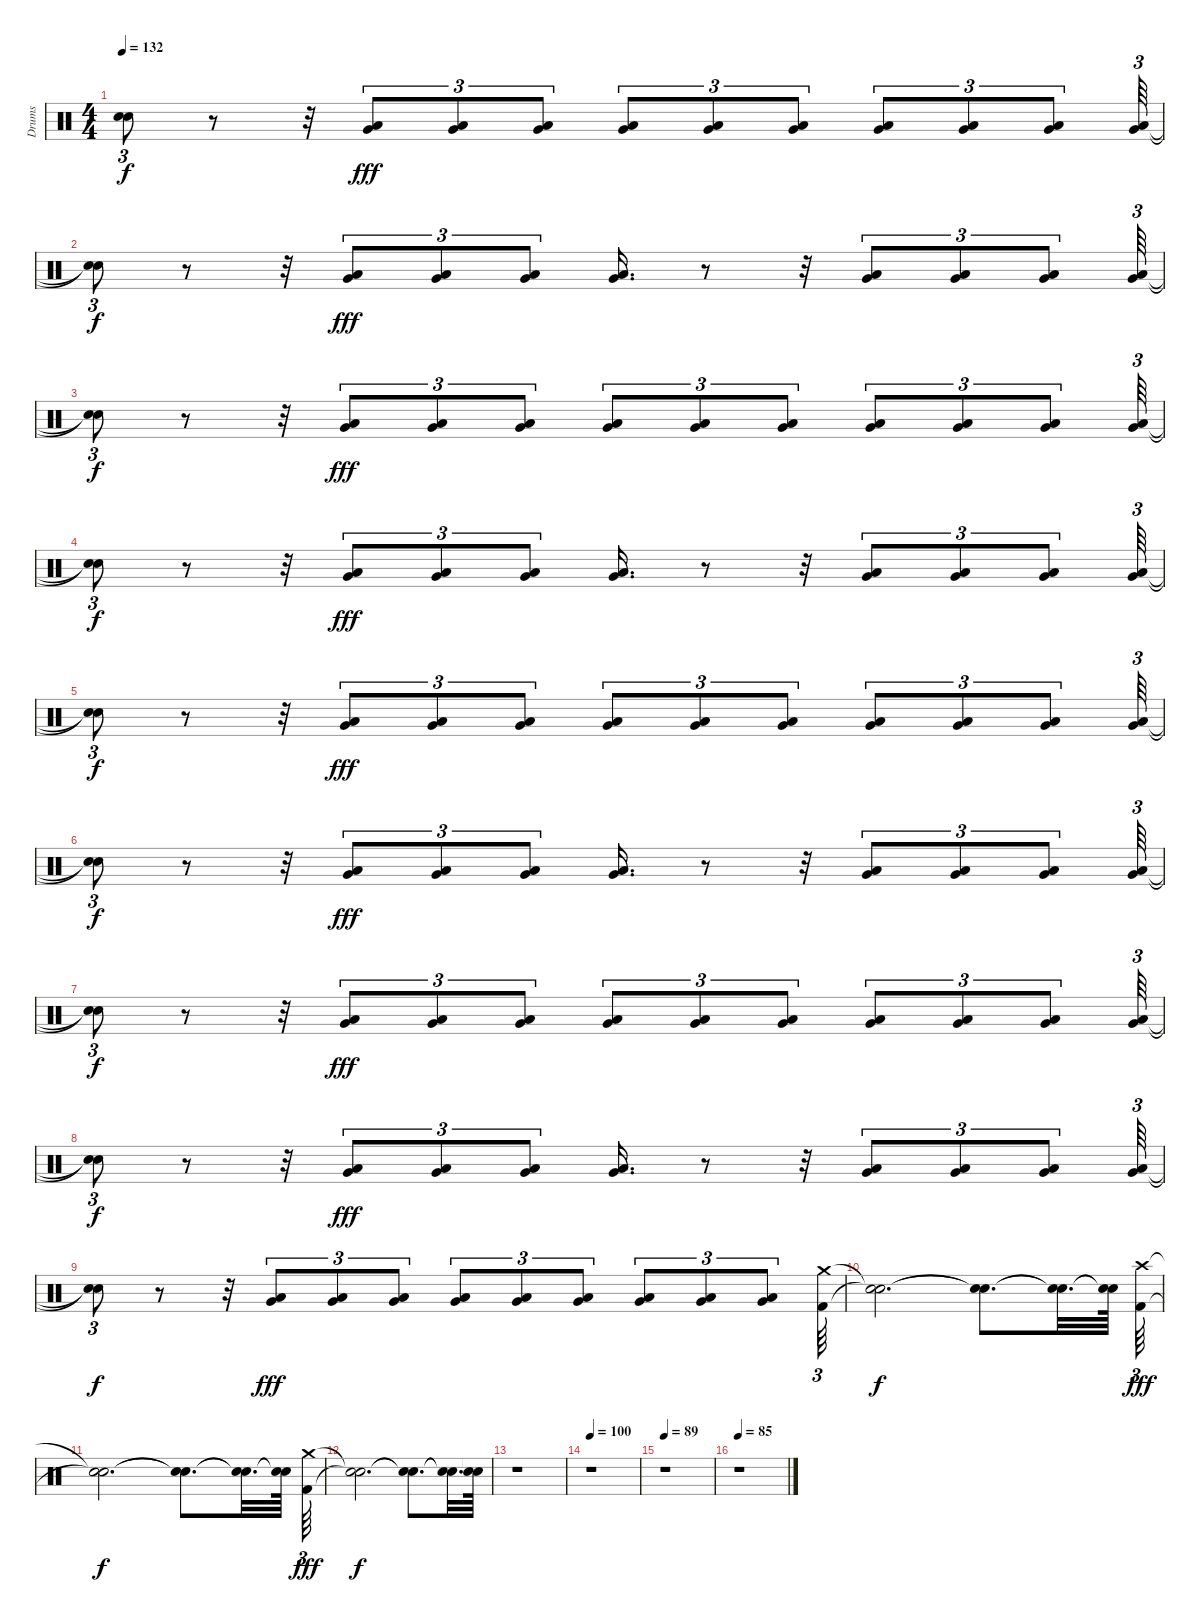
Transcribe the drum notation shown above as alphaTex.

\track ("Drums" "Drums") {instrument percussion}
\staff {score}
\articulation defaults
\ts (4 4)
\tempo 132
\clef neutral
\ks c
("Snare (hit)"{t} "Snare (hit)"{t}).8{tu (3 2) dy f} r.8 r.32 ("Low Tom (hit)" "Very Low Tom (hit)").8{tu (3 2) dy fff} ("Low Tom (hit)" "Very Low Tom (hit)").8{tu (3 2)} ("Very Low Tom (hit)" "Low Tom (hit)").8{tu (3 2)} ("Very Low Tom (hit)" "Low Tom (hit)").8{tu (3 2)} ("Low Tom (hit)" "Very Low Tom (hit)").8{tu (3 2)} ("Very Low Tom (hit)" "Low Tom (hit)").8{tu (3 2)} ("Very Low Tom (hit)" "Low Tom (hit)").8{tu (3 2)} ("Very Low Tom (hit)" "Low Tom (hit)").8{tu (3 2)} ("Low Tom (hit)" "Very Low Tom (hit)").8{tu (3 2)} ("Very Low Tom (hit)" "Low Tom (hit)").64{tu (3 2)} |
("Snare (hit)"{t} "Snare (hit)"{t}).8{tu (3 2) dy f} r.8 r.32 ("Very Low Tom (hit)" "Low Tom (hit)").8{tu (3 2) dy fff} ("Very Low Tom (hit)" "Low Tom (hit)").8{tu (3 2)} ("Very Low Tom (hit)" "Low Tom (hit)").8{tu (3 2)} ("Very Low Tom (hit)" "Low Tom (hit)").16{d} r.8 r.32 ("Low Tom (hit)" "Very Low Tom (hit)").8{tu (3 2)} ("Very Low Tom (hit)" "Low Tom (hit)").8{tu (3 2)} ("Low Tom (hit)" "Very Low Tom (hit)").8{tu (3 2)} ("Very Low Tom (hit)" "Low Tom (hit)").64{tu (3 2)} |
("Snare (hit)"{t} "Snare (hit)"{t}).8{tu (3 2) dy f} r.8 r.32 ("Very Low Tom (hit)" "Low Tom (hit)").8{tu (3 2) dy fff} ("Very Low Tom (hit)" "Low Tom (hit)").8{tu (3 2)} ("Very Low Tom (hit)" "Low Tom (hit)").8{tu (3 2)} ("Low Tom (hit)" "Very Low Tom (hit)").8{tu (3 2)} ("Very Low Tom (hit)" "Low Tom (hit)").8{tu (3 2)} ("Very Low Tom (hit)" "Low Tom (hit)").8{tu (3 2)} ("Low Tom (hit)" "Very Low Tom (hit)").8{tu (3 2)} ("Low Tom (hit)" "Very Low Tom (hit)").8{tu (3 2)} ("Very Low Tom (hit)" "Low Tom (hit)").8{tu (3 2)} ("Low Tom (hit)" "Very Low Tom (hit)").64{tu (3 2)} |
("Snare (hit)"{t} "Snare (hit)"{t}).8{tu (3 2) dy f} r.8 r.32 ("Very Low Tom (hit)" "Low Tom (hit)").8{tu (3 2) dy fff} ("Low Tom (hit)" "Very Low Tom (hit)").8{tu (3 2)} ("Low Tom (hit)" "Very Low Tom (hit)").8{tu (3 2)} ("Low Tom (hit)" "Very Low Tom (hit)").16{d} r.8 r.32 ("Very Low Tom (hit)" "Low Tom (hit)").8{tu (3 2)} ("Low Tom (hit)" "Very Low Tom (hit)").8{tu (3 2)} ("Low Tom (hit)" "Very Low Tom (hit)").8{tu (3 2)} ("Very Low Tom (hit)" "Low Tom (hit)").64{tu (3 2)} |
("Snare (hit)"{t} "Snare (hit)"{t}).8{tu (3 2) dy f} r.8 r.32 ("Low Tom (hit)" "Very Low Tom (hit)").8{tu (3 2) dy fff} ("Low Tom (hit)" "Very Low Tom (hit)").8{tu (3 2)} ("Very Low Tom (hit)" "Low Tom (hit)").8{tu (3 2)} ("Low Tom (hit)" "Very Low Tom (hit)").8{tu (3 2)} ("Very Low Tom (hit)" "Low Tom (hit)").8{tu (3 2)} ("Very Low Tom (hit)" "Low Tom (hit)").8{tu (3 2)} ("Low Tom (hit)" "Very Low Tom (hit)").8{tu (3 2)} ("Very Low Tom (hit)" "Low Tom (hit)").8{tu (3 2)} ("Very Low Tom (hit)" "Low Tom (hit)").8{tu (3 2)} ("Low Tom (hit)" "Very Low Tom (hit)").64{tu (3 2)} |
("Snare (hit)"{t} "Snare (hit)"{t}).8{tu (3 2) dy f} r.8 r.32 ("Low Tom (hit)" "Very Low Tom (hit)").8{tu (3 2) dy fff} ("Low Tom (hit)" "Very Low Tom (hit)").8{tu (3 2)} ("Very Low Tom (hit)" "Low Tom (hit)").8{tu (3 2)} ("Very Low Tom (hit)" "Low Tom (hit)").16{d} r.8 r.32 ("Low Tom (hit)" "Very Low Tom (hit)").8{tu (3 2)} ("Low Tom (hit)" "Very Low Tom (hit)").8{tu (3 2)} ("Very Low Tom (hit)" "Low Tom (hit)").8{tu (3 2)} ("Low Tom (hit)" "Very Low Tom (hit)").64{tu (3 2)} |
("Snare (hit)"{t} "Snare (hit)"{t}).8{tu (3 2) dy f} r.8 r.32 ("Very Low Tom (hit)" "Low Tom (hit)").8{tu (3 2) dy fff} ("Low Tom (hit)" "Very Low Tom (hit)").8{tu (3 2)} ("Low Tom (hit)" "Very Low Tom (hit)").8{tu (3 2)} ("Very Low Tom (hit)" "Low Tom (hit)").8{tu (3 2)} ("Very Low Tom (hit)" "Low Tom (hit)").8{tu (3 2)} ("Very Low Tom (hit)" "Low Tom (hit)").8{tu (3 2)} ("Very Low Tom (hit)" "Low Tom (hit)").8{tu (3 2)} ("Very Low Tom (hit)" "Low Tom (hit)").8{tu (3 2)} ("Low Tom (hit)" "Very Low Tom (hit)").8{tu (3 2)} ("Low Tom (hit)" "Very Low Tom (hit)").64{tu (3 2)} |
("Snare (hit)"{t} "Snare (hit)"{t}).8{tu (3 2) dy f} r.8 r.32 ("Very Low Tom (hit)" "Low Tom (hit)").8{tu (3 2) dy fff} ("Very Low Tom (hit)" "Low Tom (hit)").8{tu (3 2)} ("Very Low Tom (hit)" "Low Tom (hit)").8{tu (3 2)} ("Very Low Tom (hit)" "Low Tom (hit)").16{d} r.8 r.32 ("Very Low Tom (hit)" "Low Tom (hit)").8{tu (3 2)} ("Very Low Tom (hit)" "Low Tom (hit)").8{tu (3 2)} ("Low Tom (hit)" "Very Low Tom (hit)").8{tu (3 2)} ("Low Tom (hit)" "Very Low Tom (hit)").64{tu (3 2)} |
("Snare (hit)"{t} "Snare (hit)"{t}).8{tu (3 2) dy f} r.8 r.32 ("Low Tom (hit)" "Very Low Tom (hit)").8{tu (3 2) dy fff} ("Low Tom (hit)" "Very Low Tom (hit)").8{tu (3 2)} ("Low Tom (hit)" "Very Low Tom (hit)").8{tu (3 2)} ("Very Low Tom (hit)" "Low Tom (hit)").8{tu (3 2)} ("Very Low Tom (hit)" "Low Tom (hit)").8{tu (3 2)} ("Low Tom (hit)" "Very Low Tom (hit)").8{tu (3 2)} ("Very Low Tom (hit)" "Low Tom (hit)").8{tu (3 2)} ("Low Tom (hit)" "Very Low Tom (hit)").8{tu (3 2)} ("Low Tom (hit)" "Very Low Tom (hit)").8{tu (3 2)} ("Kick (hit) 2" "Crash medium (hit)").64{tu (3 2)} |
("Snare (hit)"{t} "Snare (hit)"{t}).2{d dy f} ("Snare (hit)"{t} "Snare (hit)"{t}).8{d} ("Snare (hit)"{t} "Snare (hit)"{t}).32{d} ("Snare (hit)"{t} "Snare (hit)"{t}).64 ("Kick (hit) 2" "Crash high (hit)").64{tu (3 2) dy fff} |
("Snare (hit)"{t} "Snare (hit)"{t}).2{d dy f} ("Snare (hit)"{t} "Snare (hit)"{t}).8{d} ("Snare (hit)"{t} "Snare (hit)"{t}).32{d} ("Snare (hit)"{t} "Snare (hit)"{t}).64 ("Crash medium (hit)" "Kick (hit) 2").64{tu (3 2) dy fff} |
("Snare (hit)"{t} "Snare (hit)"{t}).2{d dy f} ("Snare (hit)"{t} "Snare (hit)"{t}).8{d} ("Snare (hit)"{t} "Snare (hit)"{t}).32{d} ("Snare (hit)"{t} "Snare (hit)"{t}).64 |
r.1 |
\tempo 100
r.1 |
\tempo 89
r.1 |
\tempo 85
r.1
